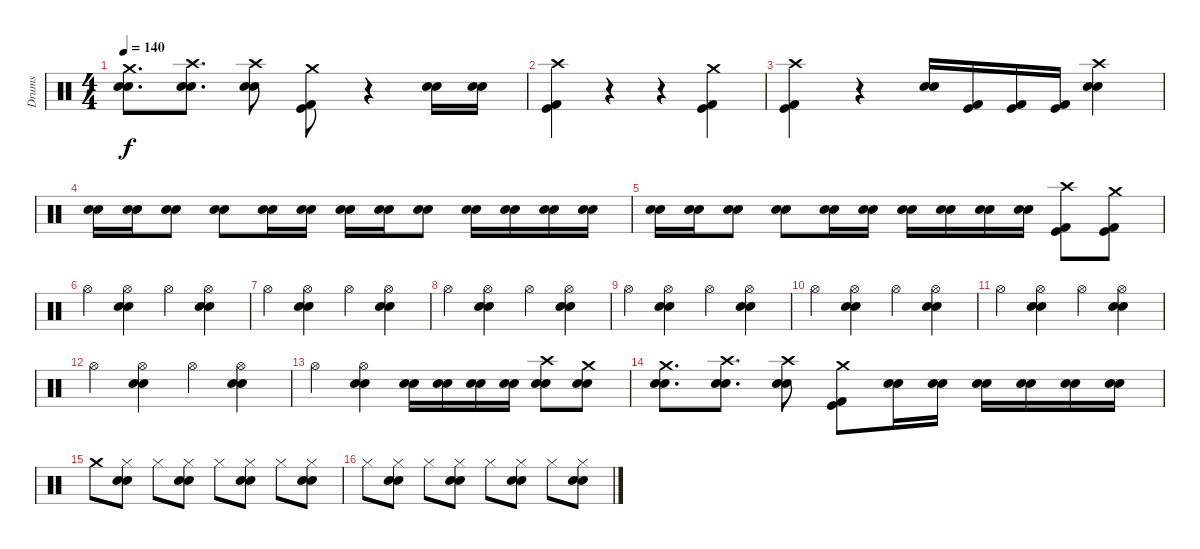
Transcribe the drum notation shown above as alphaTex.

\track ("Drums" "Drums") {instrument percussion}
\staff {score}
\articulation defaults
\ts (4 4)
\tempo 140
\clef neutral
\ks c
("Crash medium (hit)" "Electric Snare (hit)" "Snare (hit) 2").8{d dy f} ("Crash high (hit)" "Electric Snare (hit)" "Snare (hit) 2").8{d} ("Crash high (hit)" "Electric Snare (hit)" "Snare (hit) 2").8 ("Kick (hit) 2" "Kick (hit)" "Crash medium (hit)").8 r.4 ("Electric Snare (hit)" "Snare (hit) 2").16 ("Electric Snare (hit)" "Snare (hit) 2").16 |
("Kick (hit) 2" "Kick (hit)" "Crash high (hit)").4 r.4 r.4 ("Kick (hit) 2" "Kick (hit)" "Crash medium (hit)").4 |
("Kick (hit) 2" "Kick (hit)" "Crash high (hit)").4 r.4 ("Electric Snare (hit)" "Snare (hit) 2").16 ("Kick (hit) 2" "Kick (hit)").16 ("Kick (hit) 2" "Kick (hit)").16 ("Kick (hit) 2" "Kick (hit)").16 ("Electric Snare (hit)" "Snare (hit) 2" "Crash high (hit)").4 |
("Electric Snare (hit)" "Snare (hit) 2").16 ("Electric Snare (hit)" "Snare (hit) 2").16 ("Electric Snare (hit)" "Snare (hit) 2").8 ("Electric Snare (hit)" "Snare (hit) 2").8 ("Electric Snare (hit)" "Snare (hit) 2").16 ("Electric Snare (hit)" "Snare (hit) 2").16 ("Electric Snare (hit)" "Snare (hit) 2").16 ("Electric Snare (hit)" "Snare (hit) 2").16 ("Electric Snare (hit)" "Snare (hit) 2").8 ("Electric Snare (hit)" "Snare (hit) 2").16 ("Electric Snare (hit)" "Snare (hit) 2").16 ("Electric Snare (hit)" "Snare (hit) 2").16 ("Electric Snare (hit)" "Snare (hit) 2").16 |
("Electric Snare (hit)" "Snare (hit) 2").16 ("Electric Snare (hit)" "Snare (hit) 2").16 ("Electric Snare (hit)" "Snare (hit) 2").8 ("Electric Snare (hit)" "Snare (hit) 2").8 ("Electric Snare (hit)" "Snare (hit) 2").16 ("Electric Snare (hit)" "Snare (hit) 2").16 ("Electric Snare (hit)" "Snare (hit) 2").16 ("Electric Snare (hit)" "Snare (hit) 2").16 ("Electric Snare (hit)" "Snare (hit) 2").16 ("Electric Snare (hit)" "Snare (hit) 2").16 ("Crash high (hit)" "Kick (hit) 2" "Kick (hit)").8 ("Crash medium (hit)" "Kick (hit) 2" "Kick (hit)").8 |
"Hi-Hat (open)".4 ("Hi-Hat (open)" "Electric Snare (hit)" "Snare (hit) 2").4 "Hi-Hat (open)".4 ("Hi-Hat (open)" "Electric Snare (hit)" "Snare (hit) 2").4 |
"Hi-Hat (open)".4 ("Hi-Hat (open)" "Electric Snare (hit)" "Snare (hit) 2").4 "Hi-Hat (open)".4 ("Hi-Hat (open)" "Electric Snare (hit)" "Snare (hit) 2").4 |
"Hi-Hat (open)".4 ("Hi-Hat (open)" "Electric Snare (hit)" "Snare (hit) 2").4 "Hi-Hat (open)".4 ("Hi-Hat (open)" "Electric Snare (hit)" "Snare (hit) 2").4 |
"Hi-Hat (open)".4 ("Hi-Hat (open)" "Electric Snare (hit)" "Snare (hit) 2").4 "Hi-Hat (open)".4 ("Hi-Hat (open)" "Electric Snare (hit)" "Snare (hit) 2").4 |
"Hi-Hat (open)".4 ("Hi-Hat (open)" "Electric Snare (hit)" "Snare (hit) 2").4 "Hi-Hat (open)".4 ("Hi-Hat (open)" "Electric Snare (hit)" "Snare (hit) 2").4 |
"Hi-Hat (open)".4 ("Hi-Hat (open)" "Electric Snare (hit)" "Snare (hit) 2").4 "Hi-Hat (open)".4 ("Hi-Hat (open)" "Electric Snare (hit)" "Snare (hit) 2").4 |
"Hi-Hat (open)".4 ("Hi-Hat (open)" "Electric Snare (hit)" "Snare (hit) 2").4 "Hi-Hat (open)".4 ("Hi-Hat (open)" "Electric Snare (hit)" "Snare (hit) 2").4 |
"Hi-Hat (open)".4 ("Hi-Hat (open)" "Electric Snare (hit)" "Snare (hit) 2").4 ("Electric Snare (hit)" "Snare (hit) 2").16 ("Electric Snare (hit)" "Snare (hit) 2").16 ("Electric Snare (hit)" "Snare (hit) 2").16 ("Electric Snare (hit)" "Snare (hit) 2").16 ("Electric Snare (hit)" "Snare (hit) 2" "Crash high (hit)").8 ("Electric Snare (hit)" "Snare (hit) 2" "Crash medium (hit)").8 |
("Crash medium (hit)" "Electric Snare (hit)" "Snare (hit) 2").8{d} ("Crash high (hit)" "Electric Snare (hit)" "Snare (hit) 2").8{d} ("Crash high (hit)" "Electric Snare (hit)" "Snare (hit) 2").8 ("Kick (hit) 2" "Kick (hit)" "Crash medium (hit)").8 ("Electric Snare (hit)" "Snare (hit) 2").16 ("Electric Snare (hit)" "Snare (hit) 2").16 ("Electric Snare (hit)" "Snare (hit) 2").16 ("Electric Snare (hit)" "Snare (hit) 2").16 ("Electric Snare (hit)" "Snare (hit) 2").16 ("Electric Snare (hit)" "Snare (hit) 2").16 |
"Crash medium (hit)".8 ("Hi-Hat (closed)" "Electric Snare (hit)" "Snare (hit) 2").8 "Hi-Hat (closed)".8 ("Hi-Hat (closed)" "Electric Snare (hit)" "Snare (hit) 2").8 "Hi-Hat (closed)".8 ("Hi-Hat (closed)" "Electric Snare (hit)" "Snare (hit) 2").8 "Hi-Hat (closed)".8 ("Hi-Hat (closed)" "Electric Snare (hit)" "Snare (hit) 2").8 |
"Hi-Hat (closed)".8 ("Hi-Hat (closed)" "Electric Snare (hit)" "Snare (hit) 2").8 "Hi-Hat (closed)".8 ("Hi-Hat (closed)" "Electric Snare (hit)" "Snare (hit) 2").8 "Hi-Hat (closed)".8 ("Hi-Hat (closed)" "Electric Snare (hit)" "Snare (hit) 2").8 "Hi-Hat (closed)".8 ("Hi-Hat (closed)" "Electric Snare (hit)" "Snare (hit) 2").8
